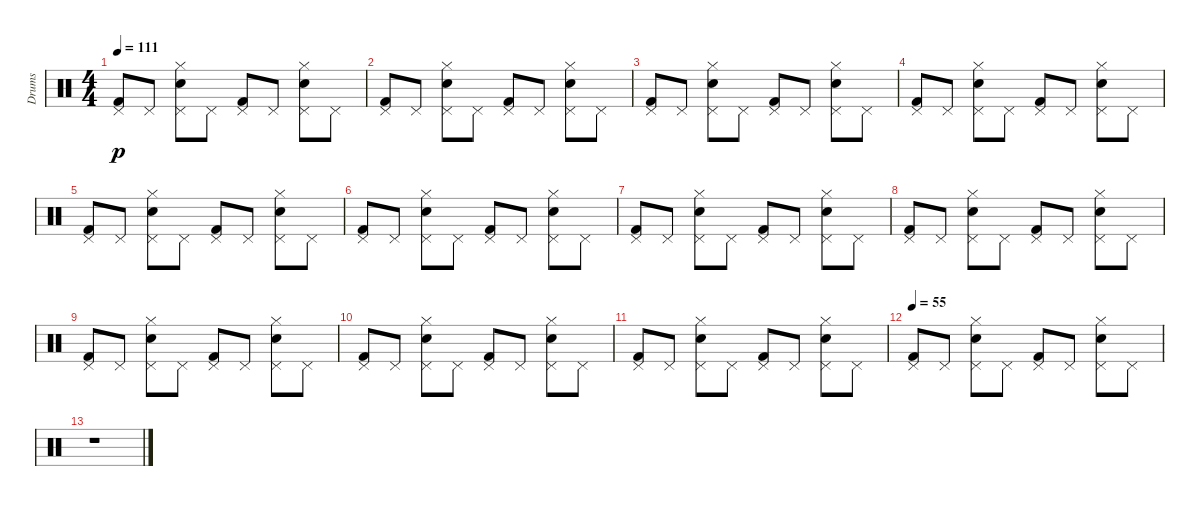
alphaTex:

\track ("Drums" "Drums") {instrument percussion}
\staff {score}
\articulation defaults
\ts (4 4)
\tempo 111
\clef neutral
\ks c
("Pedal Hi-Hat (hit)" "Kick (hit) 2").8{dy p volume 12} "Pedal Hi-Hat (hit)".8 ("Pedal Hi-Hat (hit)" "Hand Clap (hit)" "Hi-Hat (closed)").8 "Pedal Hi-Hat (hit)".8 ("Pedal Hi-Hat (hit)" "Kick (hit) 2").8 "Pedal Hi-Hat (hit)".8 ("Pedal Hi-Hat (hit)" "Hand Clap (hit)" "Hi-Hat (closed)").8 "Pedal Hi-Hat (hit)".8 |
("Pedal Hi-Hat (hit)" "Kick (hit) 2").8 "Pedal Hi-Hat (hit)".8 ("Pedal Hi-Hat (hit)" "Hand Clap (hit)" "Hi-Hat (closed)").8 "Pedal Hi-Hat (hit)".8 ("Pedal Hi-Hat (hit)" "Kick (hit) 2").8 "Pedal Hi-Hat (hit)".8 ("Pedal Hi-Hat (hit)" "Hand Clap (hit)" "Hi-Hat (closed)").8 "Pedal Hi-Hat (hit)".8 |
("Pedal Hi-Hat (hit)" "Kick (hit) 2").8{volume 10} "Pedal Hi-Hat (hit)".8 ("Pedal Hi-Hat (hit)" "Hand Clap (hit)" "Hi-Hat (closed)").8 "Pedal Hi-Hat (hit)".8 ("Pedal Hi-Hat (hit)" "Kick (hit) 2").8 "Pedal Hi-Hat (hit)".8 ("Pedal Hi-Hat (hit)" "Hand Clap (hit)" "Hi-Hat (closed)").8 "Pedal Hi-Hat (hit)".8 |
("Pedal Hi-Hat (hit)" "Kick (hit) 2").8 "Pedal Hi-Hat (hit)".8 ("Pedal Hi-Hat (hit)" "Hand Clap (hit)" "Hi-Hat (closed)").8 "Pedal Hi-Hat (hit)".8 ("Pedal Hi-Hat (hit)" "Kick (hit) 2").8 "Pedal Hi-Hat (hit)".8 ("Pedal Hi-Hat (hit)" "Hand Clap (hit)" "Hi-Hat (closed)").8 "Pedal Hi-Hat (hit)".8 |
("Pedal Hi-Hat (hit)" "Kick (hit) 2").8{volume 8} "Pedal Hi-Hat (hit)".8 ("Pedal Hi-Hat (hit)" "Hand Clap (hit)" "Hi-Hat (closed)").8 "Pedal Hi-Hat (hit)".8 ("Pedal Hi-Hat (hit)" "Kick (hit) 2").8 "Pedal Hi-Hat (hit)".8 ("Pedal Hi-Hat (hit)" "Hand Clap (hit)" "Hi-Hat (closed)").8 "Pedal Hi-Hat (hit)".8 |
("Pedal Hi-Hat (hit)" "Kick (hit) 2").8 "Pedal Hi-Hat (hit)".8 ("Pedal Hi-Hat (hit)" "Hand Clap (hit)" "Hi-Hat (closed)").8 "Pedal Hi-Hat (hit)".8 ("Pedal Hi-Hat (hit)" "Kick (hit) 2").8 "Pedal Hi-Hat (hit)".8 ("Pedal Hi-Hat (hit)" "Hand Clap (hit)" "Hi-Hat (closed)").8 "Pedal Hi-Hat (hit)".8 |
("Pedal Hi-Hat (hit)" "Kick (hit) 2").8{volume 6} "Pedal Hi-Hat (hit)".8 ("Pedal Hi-Hat (hit)" "Hand Clap (hit)" "Hi-Hat (closed)").8 "Pedal Hi-Hat (hit)".8 ("Pedal Hi-Hat (hit)" "Kick (hit) 2").8 "Pedal Hi-Hat (hit)".8 ("Pedal Hi-Hat (hit)" "Hand Clap (hit)" "Hi-Hat (closed)").8 "Pedal Hi-Hat (hit)".8 |
("Pedal Hi-Hat (hit)" "Kick (hit) 2").8 "Pedal Hi-Hat (hit)".8 ("Pedal Hi-Hat (hit)" "Hand Clap (hit)" "Hi-Hat (closed)").8 "Pedal Hi-Hat (hit)".8 ("Pedal Hi-Hat (hit)" "Kick (hit) 2").8 "Pedal Hi-Hat (hit)".8 ("Pedal Hi-Hat (hit)" "Hand Clap (hit)" "Hi-Hat (closed)").8 "Pedal Hi-Hat (hit)".8 |
("Pedal Hi-Hat (hit)" "Kick (hit) 2").8{volume 4} "Pedal Hi-Hat (hit)".8 ("Pedal Hi-Hat (hit)" "Hand Clap (hit)" "Hi-Hat (closed)").8 "Pedal Hi-Hat (hit)".8 ("Pedal Hi-Hat (hit)" "Kick (hit) 2").8 "Pedal Hi-Hat (hit)".8 ("Pedal Hi-Hat (hit)" "Hand Clap (hit)" "Hi-Hat (closed)").8 "Pedal Hi-Hat (hit)".8 |
("Pedal Hi-Hat (hit)" "Kick (hit) 2").8 "Pedal Hi-Hat (hit)".8 ("Pedal Hi-Hat (hit)" "Hand Clap (hit)" "Hi-Hat (closed)").8 "Pedal Hi-Hat (hit)".8 ("Pedal Hi-Hat (hit)" "Kick (hit) 2").8 "Pedal Hi-Hat (hit)".8 ("Pedal Hi-Hat (hit)" "Hand Clap (hit)" "Hi-Hat (closed)").8 "Pedal Hi-Hat (hit)".8 |
("Pedal Hi-Hat (hit)" "Kick (hit) 2").8{volume 0} "Pedal Hi-Hat (hit)".8 ("Pedal Hi-Hat (hit)" "Hand Clap (hit)" "Hi-Hat (closed)").8 "Pedal Hi-Hat (hit)".8 ("Pedal Hi-Hat (hit)" "Kick (hit) 2").8 "Pedal Hi-Hat (hit)".8 ("Pedal Hi-Hat (hit)" "Hand Clap (hit)" "Hi-Hat (closed)").8 "Pedal Hi-Hat (hit)".8 |
\tempo 55
("Pedal Hi-Hat (hit)" "Kick (hit) 2").8 "Pedal Hi-Hat (hit)".8 ("Pedal Hi-Hat (hit)" "Hand Clap (hit)" "Hi-Hat (closed)").8 "Pedal Hi-Hat (hit)".8 ("Pedal Hi-Hat (hit)" "Kick (hit) 2").8 "Pedal Hi-Hat (hit)".8 ("Pedal Hi-Hat (hit)" "Hand Clap (hit)" "Hi-Hat (closed)").8 "Pedal Hi-Hat (hit)".8 |
r.1
